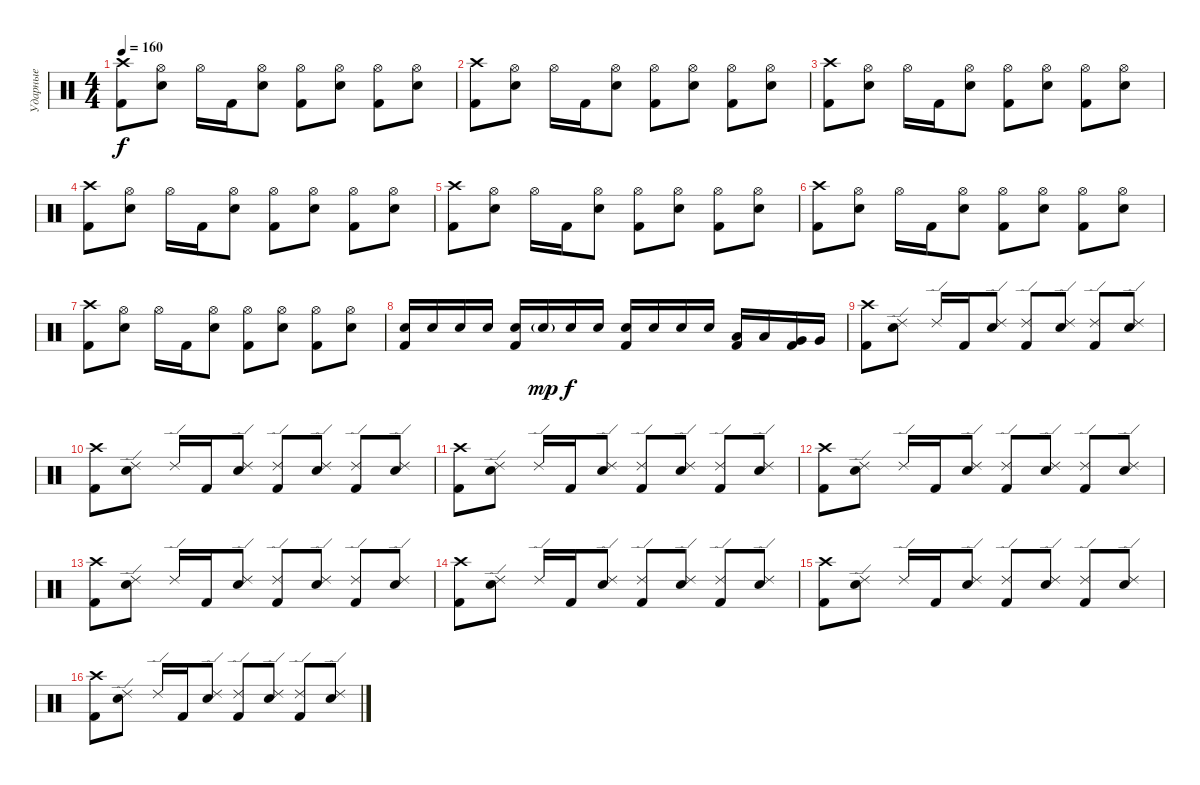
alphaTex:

\track ("Ударные" "Ударные") {instrument percussion}
\staff {score}
\articulation defaults
\ts (4 4)
\tempo 160
\clef neutral
\ks c
("Kick (hit) 2" "Crash high (hit)").8{dy f} ("Electric Snare (hit)" "Hi-Hat (open)").8 "Hi-Hat (open)".16 "Kick (hit) 2".16 ("Electric Snare (hit)" "Hi-Hat (open)").8 ("Kick (hit) 2" "Hi-Hat (open)").8 ("Electric Snare (hit)" "Hi-Hat (open)").8 ("Kick (hit) 2" "Hi-Hat (open)").8 ("Electric Snare (hit)" "Hi-Hat (open)").8 |
("Kick (hit) 2" "Crash high (hit)").8 ("Electric Snare (hit)" "Hi-Hat (open)").8 "Hi-Hat (open)".16 "Kick (hit) 2".16 ("Electric Snare (hit)" "Hi-Hat (open)").8 ("Kick (hit) 2" "Hi-Hat (open)").8 ("Electric Snare (hit)" "Hi-Hat (open)").8 ("Kick (hit) 2" "Hi-Hat (open)").8 ("Electric Snare (hit)" "Hi-Hat (open)").8 |
("Kick (hit) 2" "Crash high (hit)").8 ("Electric Snare (hit)" "Hi-Hat (open)").8 "Hi-Hat (open)".16 "Kick (hit) 2".16 ("Electric Snare (hit)" "Hi-Hat (open)").8 ("Kick (hit) 2" "Hi-Hat (open)").8 ("Electric Snare (hit)" "Hi-Hat (open)").8 ("Kick (hit) 2" "Hi-Hat (open)").8 ("Electric Snare (hit)" "Hi-Hat (open)").8 |
("Kick (hit) 2" "Crash high (hit)").8 ("Electric Snare (hit)" "Hi-Hat (open)").8 "Hi-Hat (open)".16 "Kick (hit) 2".16 ("Electric Snare (hit)" "Hi-Hat (open)").8 ("Kick (hit) 2" "Hi-Hat (open)").8 ("Electric Snare (hit)" "Hi-Hat (open)").8 ("Kick (hit) 2" "Hi-Hat (open)").8 ("Electric Snare (hit)" "Hi-Hat (open)").8 |
("Kick (hit) 2" "Crash high (hit)").8 ("Electric Snare (hit)" "Hi-Hat (open)").8 "Hi-Hat (open)".16 "Kick (hit) 2".16 ("Electric Snare (hit)" "Hi-Hat (open)").8 ("Kick (hit) 2" "Hi-Hat (open)").8 ("Electric Snare (hit)" "Hi-Hat (open)").8 ("Kick (hit) 2" "Hi-Hat (open)").8 ("Electric Snare (hit)" "Hi-Hat (open)").8 |
("Kick (hit) 2" "Crash high (hit)").8 ("Electric Snare (hit)" "Hi-Hat (open)").8 "Hi-Hat (open)".16 "Kick (hit) 2".16 ("Electric Snare (hit)" "Hi-Hat (open)").8 ("Kick (hit) 2" "Hi-Hat (open)").8 ("Electric Snare (hit)" "Hi-Hat (open)").8 ("Kick (hit) 2" "Hi-Hat (open)").8 ("Electric Snare (hit)" "Hi-Hat (open)").8 |
("Kick (hit) 2" "Crash high (hit)").8 ("Electric Snare (hit)" "Hi-Hat (open)").8 "Hi-Hat (open)".16 "Kick (hit) 2".16 ("Electric Snare (hit)" "Hi-Hat (open)").8 ("Kick (hit) 2" "Hi-Hat (open)").8 ("Electric Snare (hit)" "Hi-Hat (open)").8 ("Kick (hit) 2" "Hi-Hat (open)").8 ("Electric Snare (hit)" "Hi-Hat (open)").8 |
("Electric Snare (hit)" "Kick (hit) 2").16 "Electric Snare (hit)".16 "Electric Snare (hit)".16 "Electric Snare (hit)".16 ("Electric Snare (hit)" "Kick (hit) 2").16 "Electric Snare (hit)"{g}.16{dy mp} "Electric Snare (hit)".16{dy f} "Electric Snare (hit)".16 ("Electric Snare (hit)" "Kick (hit) 2").16 "Electric Snare (hit)".16 "Electric Snare (hit)".16 "Electric Snare (hit)".16 ("Low Tom (hit)" "Kick (hit) 2").16 "Low Tom (hit)".16 ("Very Low Tom (hit)" "Kick (hit) 2").16 "Very Low Tom (hit)".16 |
("Kick (hit) 2" "Crash high (hit)").8 ("Electric Snare (hit)" "Ride (edge) 2").8 "Ride (edge) 2".16 "Kick (hit) 2".16 ("Electric Snare (hit)" "Ride (edge) 2").8 ("Kick (hit) 2" "Ride (edge) 2").8 ("Electric Snare (hit)" "Ride (edge) 2").8 ("Kick (hit) 2" "Ride (edge) 2").8 ("Electric Snare (hit)" "Ride (edge) 2").8 |
("Kick (hit) 2" "Crash high (hit)").8 ("Electric Snare (hit)" "Ride (edge) 2").8 "Ride (edge) 2".16 "Kick (hit) 2".16 ("Electric Snare (hit)" "Ride (edge) 2").8 ("Kick (hit) 2" "Ride (edge) 2").8 ("Electric Snare (hit)" "Ride (edge) 2").8 ("Kick (hit) 2" "Ride (edge) 2").8 ("Electric Snare (hit)" "Ride (edge) 2").8 |
("Kick (hit) 2" "Crash high (hit)").8 ("Electric Snare (hit)" "Ride (edge) 2").8 "Ride (edge) 2".16 "Kick (hit) 2".16 ("Electric Snare (hit)" "Ride (edge) 2").8 ("Kick (hit) 2" "Ride (edge) 2").8 ("Electric Snare (hit)" "Ride (edge) 2").8 ("Kick (hit) 2" "Ride (edge) 2").8 ("Electric Snare (hit)" "Ride (edge) 2").8 |
("Kick (hit) 2" "Crash high (hit)").8 ("Electric Snare (hit)" "Ride (edge) 2").8 "Ride (edge) 2".16 "Kick (hit) 2".16 ("Electric Snare (hit)" "Ride (edge) 2").8 ("Kick (hit) 2" "Ride (edge) 2").8 ("Electric Snare (hit)" "Ride (edge) 2").8 ("Kick (hit) 2" "Ride (edge) 2").8 ("Electric Snare (hit)" "Ride (edge) 2").8 |
("Kick (hit) 2" "Crash high (hit)").8 ("Electric Snare (hit)" "Ride (edge) 2").8 "Ride (edge) 2".16 "Kick (hit) 2".16 ("Electric Snare (hit)" "Ride (edge) 2").8 ("Kick (hit) 2" "Ride (edge) 2").8 ("Electric Snare (hit)" "Ride (edge) 2").8 ("Kick (hit) 2" "Ride (edge) 2").8 ("Electric Snare (hit)" "Ride (edge) 2").8 |
("Kick (hit) 2" "Crash high (hit)").8 ("Electric Snare (hit)" "Ride (edge) 2").8 "Ride (edge) 2".16 "Kick (hit) 2".16 ("Electric Snare (hit)" "Ride (edge) 2").8 ("Kick (hit) 2" "Ride (edge) 2").8 ("Electric Snare (hit)" "Ride (edge) 2").8 ("Kick (hit) 2" "Ride (edge) 2").8 ("Electric Snare (hit)" "Ride (edge) 2").8 |
("Kick (hit) 2" "Crash high (hit)").8 ("Electric Snare (hit)" "Ride (edge) 2").8 "Ride (edge) 2".16 "Kick (hit) 2".16 ("Electric Snare (hit)" "Ride (edge) 2").8 ("Kick (hit) 2" "Ride (edge) 2").8 ("Electric Snare (hit)" "Ride (edge) 2").8 ("Kick (hit) 2" "Ride (edge) 2").8 ("Electric Snare (hit)" "Ride (edge) 2").8 |
("Kick (hit) 2" "Crash high (hit)").8 ("Electric Snare (hit)" "Ride (edge) 2").8 "Ride (edge) 2".16 "Kick (hit) 2".16 ("Electric Snare (hit)" "Ride (edge) 2").8 ("Kick (hit) 2" "Ride (edge) 2").8 ("Electric Snare (hit)" "Ride (edge) 2").8 ("Kick (hit) 2" "Ride (edge) 2").8 ("Electric Snare (hit)" "Ride (edge) 2").8
